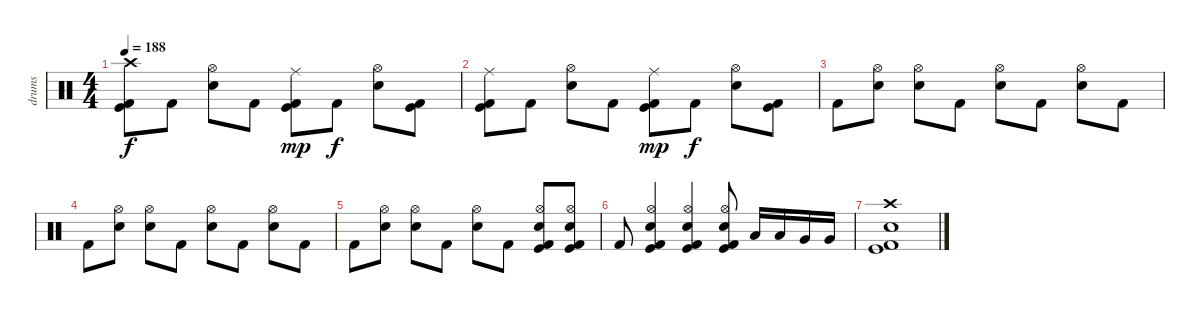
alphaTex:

\track ("drums" "drums") {instrument percussion}
\staff {score}
\articulation defaults
\ts (4 4)
\tempo 188
\clef neutral
\ks c
("Crash high (hit)" "Kick (hit)" "Kick (hit) 2").8{dy f} "Kick (hit) 2".8 ("Hi-Hat (open)" "Snare (hit) 2").8 "Kick (hit) 2".8 ("Ride (middle)" "Kick (hit)" "Kick (hit) 2").8{dy mp} "Kick (hit) 2".8{dy f} ("Hi-Hat (open)" "Snare (hit) 2").8 ("Kick (hit)" "Kick (hit) 2").8 |
("Ride (middle)" "Kick (hit)" "Kick (hit) 2").8 "Kick (hit) 2".8 ("Hi-Hat (open)" "Snare (hit) 2").8 "Kick (hit) 2".8 ("Ride (middle)" "Kick (hit)" "Kick (hit) 2").8{dy mp} "Kick (hit) 2".8{dy f} ("Hi-Hat (open)" "Snare (hit) 2").8 ("Kick (hit)" "Kick (hit) 2").8 |
"Kick (hit) 2".8 ("Hi-Hat (open)" "Snare (hit) 2").8 ("Hi-Hat (open)" "Snare (hit) 2").8 "Kick (hit) 2".8 ("Hi-Hat (open)" "Snare (hit) 2").8 "Kick (hit) 2".8 ("Hi-Hat (open)" "Snare (hit) 2").8 "Kick (hit) 2".8 |
"Kick (hit) 2".8 ("Hi-Hat (open)" "Snare (hit) 2").8 ("Hi-Hat (open)" "Snare (hit) 2").8 "Kick (hit) 2".8 ("Hi-Hat (open)" "Snare (hit) 2").8 "Kick (hit) 2".8 ("Hi-Hat (open)" "Snare (hit) 2").8 "Kick (hit) 2".8 |
"Kick (hit) 2".8 ("Hi-Hat (open)" "Snare (hit) 2").8 ("Hi-Hat (open)" "Snare (hit) 2").8 "Kick (hit) 2".8 ("Hi-Hat (open)" "Snare (hit) 2").8 "Kick (hit) 2".8 ("Hi-Hat (open)" "Snare (hit) 2" "Kick (hit)" "Kick (hit) 2").8 ("Hi-Hat (open)" "Snare (hit) 2" "Kick (hit)" "Kick (hit) 2").8 |
"Kick (hit) 2".8 ("Hi-Hat (open)" "Snare (hit) 2" "Kick (hit)" "Kick (hit) 2").4 ("Hi-Hat (open)" "Snare (hit) 2" "Kick (hit)" "Kick (hit) 2").4 ("Hi-Hat (open)" "Snare (hit) 2" "Kick (hit)" "Kick (hit) 2").8 "Low Tom (hit)".16 "Low Tom (hit)".16 "Very Low Tom (hit)".16 "Very Low Tom (hit)".16 |
("Crash high (hit)" "Snare (hit) 2" "Kick (hit)" "Kick (hit) 2").1
